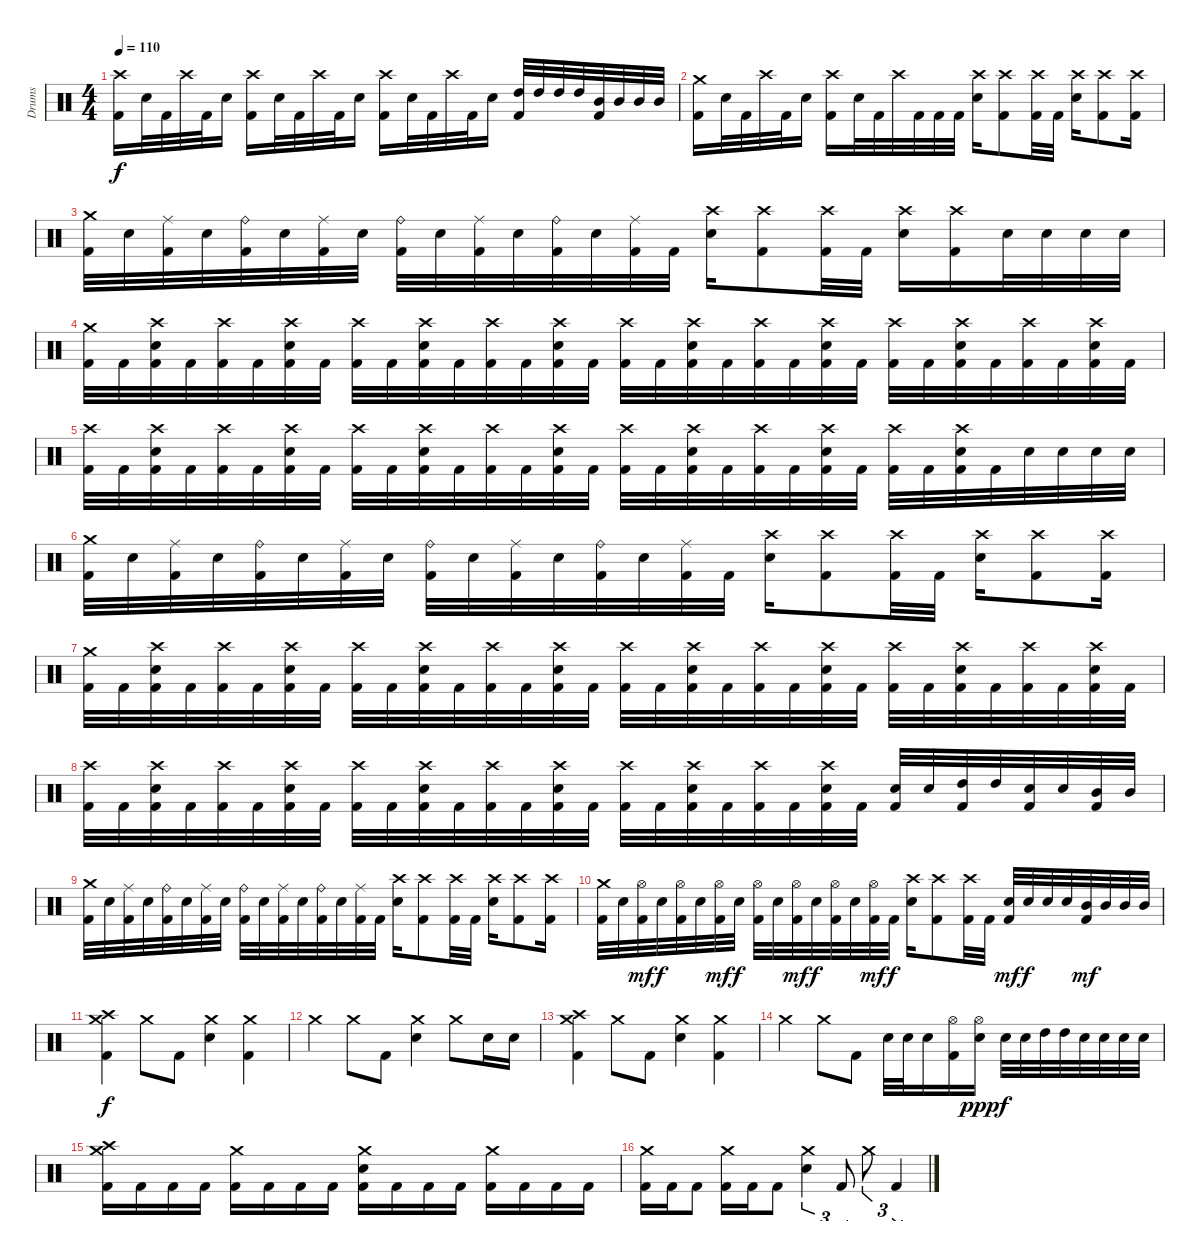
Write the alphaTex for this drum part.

\track ("Drums" "Drums") {instrument percussion}
\staff {score}
\articulation defaults
\ts (4 4)
\tempo 110
\clef neutral
\ks c
("Crash high (hit)" "Kick (hit) 2").16{dy f} "Electric Snare (hit)".32 "Kick (hit) 2".32 "Crash high (hit)".32 "Kick (hit) 2".32 "Electric Snare (hit)".16 ("Crash high (hit)" "Kick (hit) 2").16 "Electric Snare (hit)".32 "Kick (hit) 2".32 "Crash high (hit)".32 "Kick (hit) 2".32 "Electric Snare (hit)".16 ("Crash high (hit)" "Kick (hit) 2").16 "Electric Snare (hit)".32 "Kick (hit) 2".32 "Crash high (hit)".32 "Kick (hit) 2".32 "Electric Snare (hit)".16 ("High Tom (hit)" "Kick (hit) 2").32 "High Tom (hit)".32 "High Tom (hit)".32 "High Tom (hit)".32 ("Mid Tom (hit)" "Kick (hit) 2").32 "Mid Tom (hit)".32 "Mid Tom (hit)".32 "Mid Tom (hit)".32 |
("Crash medium (hit)" "Kick (hit) 2").16 "Electric Snare (hit)".32 "Kick (hit) 2".32 "Crash high (hit)".32 "Kick (hit) 2".32 "Electric Snare (hit)".16 ("Crash high (hit)" "Kick (hit) 2").16 "Electric Snare (hit)".32 "Kick (hit) 2".32 "Crash high (hit)".32 "Kick (hit) 2".32 "Kick (hit) 2".32 "Kick (hit) 2".32 ("Crash high (hit)" "Electric Snare (hit)").16 ("Crash high (hit)" "Kick (hit) 2").8 ("Crash high (hit)" "Kick (hit) 2").32 "Kick (hit) 2".32 ("Crash high (hit)" "Electric Snare (hit)").16 ("Crash high (hit)" "Kick (hit) 2").8 ("Crash high (hit)" "Kick (hit) 2").16 |
("Crash medium (hit)" "Kick (hit) 2").32 "Electric Snare (hit)".32 ("Ride (middle)" "Kick (hit) 2").32 "Electric Snare (hit)".32 ("Ride (bell)" "Kick (hit) 2").32 "Electric Snare (hit)".32 ("Ride (middle)" "Kick (hit) 2").32 "Electric Snare (hit)".32 ("Ride (bell)" "Kick (hit) 2").32 "Electric Snare (hit)".32 ("Ride (middle)" "Kick (hit) 2").32 "Electric Snare (hit)".32 ("Ride (bell)" "Kick (hit) 2").32 "Electric Snare (hit)".32 ("Ride (middle)" "Kick (hit) 2").32 "Kick (hit) 2".32 ("Crash high (hit)" "Electric Snare (hit)").16 ("Crash high (hit)" "Kick (hit) 2").8 ("Crash high (hit)" "Kick (hit) 2").32 "Kick (hit) 2".32 ("Crash high (hit)" "Electric Snare (hit)").16 ("Crash high (hit)" "Kick (hit) 2").16 "Electric Snare (hit)".32 "Electric Snare (hit)".32 "Electric Snare (hit)".32 "Electric Snare (hit)".32 |
("Crash medium (hit)" "Kick (hit) 2").32 "Kick (hit) 2".32 ("Crash high (hit)" "Electric Snare (hit)" "Kick (hit) 2").32 "Kick (hit) 2".32 ("Crash high (hit)" "Kick (hit) 2").32 "Kick (hit) 2".32 ("Crash high (hit)" "Electric Snare (hit)" "Kick (hit) 2").32 "Kick (hit) 2".32 ("Crash high (hit)" "Kick (hit) 2").32 "Kick (hit) 2".32 ("Crash high (hit)" "Electric Snare (hit)" "Kick (hit) 2").32 "Kick (hit) 2".32 ("Crash high (hit)" "Kick (hit) 2").32 "Kick (hit) 2".32 ("Crash high (hit)" "Electric Snare (hit)" "Kick (hit) 2").32 "Kick (hit) 2".32 ("Crash high (hit)" "Kick (hit) 2").32 "Kick (hit) 2".32 ("Crash high (hit)" "Electric Snare (hit)" "Kick (hit) 2").32 "Kick (hit) 2".32 ("Crash high (hit)" "Kick (hit) 2").32 "Kick (hit) 2".32 ("Crash high (hit)" "Electric Snare (hit)" "Kick (hit) 2").32 "Kick (hit) 2".32 ("Crash high (hit)" "Kick (hit) 2").32 "Kick (hit) 2".32 ("Crash high (hit)" "Electric Snare (hit)" "Kick (hit) 2").32 "Kick (hit) 2".32 ("Crash high (hit)" "Kick (hit) 2").32 "Kick (hit) 2".32 ("Crash high (hit)" "Electric Snare (hit)" "Kick (hit) 2").32 "Kick (hit) 2".32 |
("Crash high (hit)" "Kick (hit) 2").32 "Kick (hit) 2".32 ("Crash high (hit)" "Electric Snare (hit)" "Kick (hit) 2").32 "Kick (hit) 2".32 ("Crash high (hit)" "Kick (hit) 2").32 "Kick (hit) 2".32 ("Crash high (hit)" "Electric Snare (hit)" "Kick (hit) 2").32 "Kick (hit) 2".32 ("Crash high (hit)" "Kick (hit) 2").32 "Kick (hit) 2".32 ("Crash high (hit)" "Electric Snare (hit)" "Kick (hit) 2").32 "Kick (hit) 2".32 ("Crash high (hit)" "Kick (hit) 2").32 "Kick (hit) 2".32 ("Crash high (hit)" "Electric Snare (hit)" "Kick (hit) 2").32 "Kick (hit) 2".32 ("Crash high (hit)" "Kick (hit) 2").32 "Kick (hit) 2".32 ("Crash high (hit)" "Electric Snare (hit)" "Kick (hit) 2").32 "Kick (hit) 2".32 ("Crash high (hit)" "Kick (hit) 2").32 "Kick (hit) 2".32 ("Crash high (hit)" "Electric Snare (hit)" "Kick (hit) 2").32 "Kick (hit) 2".32 ("Crash high (hit)" "Kick (hit) 2").32 "Kick (hit) 2".32 ("Crash high (hit)" "Electric Snare (hit)" "Kick (hit) 2").32 "Kick (hit) 2".32 "Electric Snare (hit)".32 "Electric Snare (hit)".32 "Electric Snare (hit)".32 "Electric Snare (hit)".32 |
("Crash medium (hit)" "Kick (hit) 2").32 "Electric Snare (hit)".32 ("Ride (middle)" "Kick (hit) 2").32 "Electric Snare (hit)".32 ("Ride (bell)" "Kick (hit) 2").32 "Electric Snare (hit)".32 ("Ride (middle)" "Kick (hit) 2").32 "Electric Snare (hit)".32 ("Ride (bell)" "Kick (hit) 2").32 "Electric Snare (hit)".32 ("Ride (middle)" "Kick (hit) 2").32 "Electric Snare (hit)".32 ("Ride (bell)" "Kick (hit) 2").32 "Electric Snare (hit)".32 ("Ride (middle)" "Kick (hit) 2").32 "Kick (hit) 2".32 ("Crash high (hit)" "Electric Snare (hit)").16 ("Crash high (hit)" "Kick (hit) 2").8 ("Crash high (hit)" "Kick (hit) 2").32 "Kick (hit) 2".32 ("Crash high (hit)" "Electric Snare (hit)").16 ("Crash high (hit)" "Kick (hit) 2").8 ("Crash high (hit)" "Kick (hit) 2").16 |
("Crash medium (hit)" "Kick (hit) 2").32 "Kick (hit) 2".32 ("Crash high (hit)" "Electric Snare (hit)" "Kick (hit) 2").32 "Kick (hit) 2".32 ("Crash high (hit)" "Kick (hit) 2").32 "Kick (hit) 2".32 ("Crash high (hit)" "Electric Snare (hit)" "Kick (hit) 2").32 "Kick (hit) 2".32 ("Crash high (hit)" "Kick (hit) 2").32 "Kick (hit) 2".32 ("Crash high (hit)" "Electric Snare (hit)" "Kick (hit) 2").32 "Kick (hit) 2".32 ("Crash high (hit)" "Kick (hit) 2").32 "Kick (hit) 2".32 ("Crash high (hit)" "Electric Snare (hit)" "Kick (hit) 2").32 "Kick (hit) 2".32 ("Crash high (hit)" "Kick (hit) 2").32 "Kick (hit) 2".32 ("Crash high (hit)" "Electric Snare (hit)" "Kick (hit) 2").32 "Kick (hit) 2".32 ("Crash high (hit)" "Kick (hit) 2").32 "Kick (hit) 2".32 ("Crash high (hit)" "Electric Snare (hit)" "Kick (hit) 2").32 "Kick (hit) 2".32 ("Crash high (hit)" "Kick (hit) 2").32 "Kick (hit) 2".32 ("Crash high (hit)" "Electric Snare (hit)" "Kick (hit) 2").32 "Kick (hit) 2".32 ("Crash high (hit)" "Kick (hit) 2").32 "Kick (hit) 2".32 ("Crash high (hit)" "Electric Snare (hit)" "Kick (hit) 2").32 "Kick (hit) 2".32 |
("Crash high (hit)" "Kick (hit) 2").32 "Kick (hit) 2".32 ("Crash high (hit)" "Electric Snare (hit)" "Kick (hit) 2").32 "Kick (hit) 2".32 ("Crash high (hit)" "Kick (hit) 2").32 "Kick (hit) 2".32 ("Crash high (hit)" "Electric Snare (hit)" "Kick (hit) 2").32 "Kick (hit) 2".32 ("Crash high (hit)" "Kick (hit) 2").32 "Kick (hit) 2".32 ("Crash high (hit)" "Electric Snare (hit)" "Kick (hit) 2").32 "Kick (hit) 2".32 ("Crash high (hit)" "Kick (hit) 2").32 "Kick (hit) 2".32 ("Crash high (hit)" "Electric Snare (hit)" "Kick (hit) 2").32 "Kick (hit) 2".32 ("Crash high (hit)" "Kick (hit) 2").32 "Kick (hit) 2".32 ("Crash high (hit)" "Electric Snare (hit)" "Kick (hit) 2").32 "Kick (hit) 2".32 ("Crash high (hit)" "Kick (hit) 2").32 "Kick (hit) 2".32 ("Crash high (hit)" "Electric Snare (hit)" "Kick (hit) 2").32 "Kick (hit) 2".32 ("Electric Snare (hit)" "Kick (hit) 2").32 "Electric Snare (hit)".32 ("High Tom (hit)" "Kick (hit) 2").32 "High Tom (hit)".32 ("Electric Snare (hit)" "Kick (hit) 2").32 "Electric Snare (hit)".32 ("Mid Tom (hit)" "Kick (hit) 2").32 "Mid Tom (hit)".32 |
("Crash medium (hit)" "Kick (hit) 2").32 "Electric Snare (hit)".32 ("Ride (middle)" "Kick (hit) 2").32 "Electric Snare (hit)".32 ("Ride (bell)" "Kick (hit) 2").32 "Electric Snare (hit)".32 ("Ride (middle)" "Kick (hit) 2").32 "Electric Snare (hit)".32 ("Ride (bell)" "Kick (hit) 2").32 "Electric Snare (hit)".32 ("Ride (middle)" "Kick (hit) 2").32 "Electric Snare (hit)".32 ("Ride (bell)" "Kick (hit) 2").32 "Electric Snare (hit)".32 ("Ride (middle)" "Kick (hit) 2").32 "Kick (hit) 2".32 ("Crash high (hit)" "Electric Snare (hit)").16 ("Crash high (hit)" "Kick (hit) 2").8 ("Crash high (hit)" "Kick (hit) 2").32 "Kick (hit) 2".32 ("Crash high (hit)" "Electric Snare (hit)").16 ("Crash high (hit)" "Kick (hit) 2").8 ("Crash high (hit)" "Kick (hit) 2").16 |
("Crash medium (hit)" "Kick (hit) 2").32 "Electric Snare (hit)".32 ("Hi-Hat (open)" "Kick (hit) 2").32{dy mf} "Electric Snare (hit)".32{dy f} ("Hi-Hat (open)" "Kick (hit) 2").32 "Electric Snare (hit)".32 ("Hi-Hat (open)" "Kick (hit) 2").32{dy mf} "Electric Snare (hit)".32{dy f} ("Hi-Hat (open)" "Kick (hit) 2").32 "Electric Snare (hit)".32 ("Hi-Hat (open)" "Kick (hit) 2").32{dy mf} "Electric Snare (hit)".32{dy f} ("Hi-Hat (open)" "Kick (hit) 2").32 "Electric Snare (hit)".32 ("Hi-Hat (open)" "Kick (hit) 2").32{dy mf} "Kick (hit) 2".32{dy f} ("Crash high (hit)" "Electric Snare (hit)").16 ("Crash high (hit)" "Kick (hit) 2").8 ("Crash high (hit)" "Kick (hit) 2").32 "Kick (hit) 2".32 ("Electric Snare (hit)" "Kick (hit) 2").32{dy mf} "Electric Snare (hit)".32{dy f} "Electric Snare (hit)".32 "Electric Snare (hit)".32 ("Mid Tom (hit)" "Kick (hit) 2").32{dy mf} "Mid Tom (hit)".32 "Mid Tom (hit)".32 "Mid Tom (hit)".32 |
("Crash medium (hit)" "Crash high (hit)" "Kick (hit) 2").4{dy f} "Crash medium (hit)".8 "Kick (hit) 2".8 ("Crash medium (hit)" "Electric Snare (hit)").4 ("Crash medium (hit)" "Kick (hit) 2").4 |
"Crash medium (hit)".4 "Crash medium (hit)".8 "Kick (hit) 2".8 ("Crash medium (hit)" "Electric Snare (hit)").4 "Crash medium (hit)".8 "Electric Snare (hit)".16 "Electric Snare (hit)".16 |
("Crash medium (hit)" "Crash high (hit)" "Kick (hit) 2").4 "Crash medium (hit)".8 "Kick (hit) 2".8 ("Crash medium (hit)" "Electric Snare (hit)").4 ("Crash medium (hit)" "Kick (hit) 2").4 |
"Crash medium (hit)".4 "Crash medium (hit)".8 "Kick (hit) 2".8 "Electric Snare (hit)".32 "Electric Snare (hit)".32 "Electric Snare (hit)".16 ("Hi-Hat (open)" "Kick (hit) 2").16 ("Hi-Hat (open)" "Electric Snare (hit)").16{dy ppp} "Electric Snare (hit)".32{dy f} "Electric Snare (hit)".32 "High Tom (hit)".32 "High Tom (hit)".32 "Electric Snare (hit)".32 "Electric Snare (hit)".32 "Electric Snare (hit)".32 "Electric Snare (hit)".32 |
("Crash medium (hit)" "Crash high (hit)" "Kick (hit) 2").16 "Kick (hit) 2".16 "Kick (hit) 2".16 "Kick (hit) 2".16 ("Crash medium (hit)" "Kick (hit) 2").16 "Kick (hit) 2".16 "Kick (hit) 2".16 "Kick (hit) 2".16 ("Crash medium (hit)" "Electric Snare (hit)" "Kick (hit) 2").16 "Kick (hit) 2".16 "Kick (hit) 2".16 "Kick (hit) 2".16 ("Crash medium (hit)" "Kick (hit) 2").16 "Kick (hit) 2".16 "Kick (hit) 2".16 "Kick (hit) 2".16 |
("Crash medium (hit)" "Kick (hit) 2").16 "Kick (hit) 2".16 "Kick (hit) 2".8 ("Crash medium (hit)" "Kick (hit) 2").16 "Kick (hit) 2".16 "Kick (hit) 2".8 ("Crash medium (hit)" "Electric Snare (hit)").4{tu (3 2)} "Kick (hit) 2".8{tu (3 2)} "Crash medium (hit)".8{tu (3 2)} "Kick (hit) 2".4{tu (3 2)}
